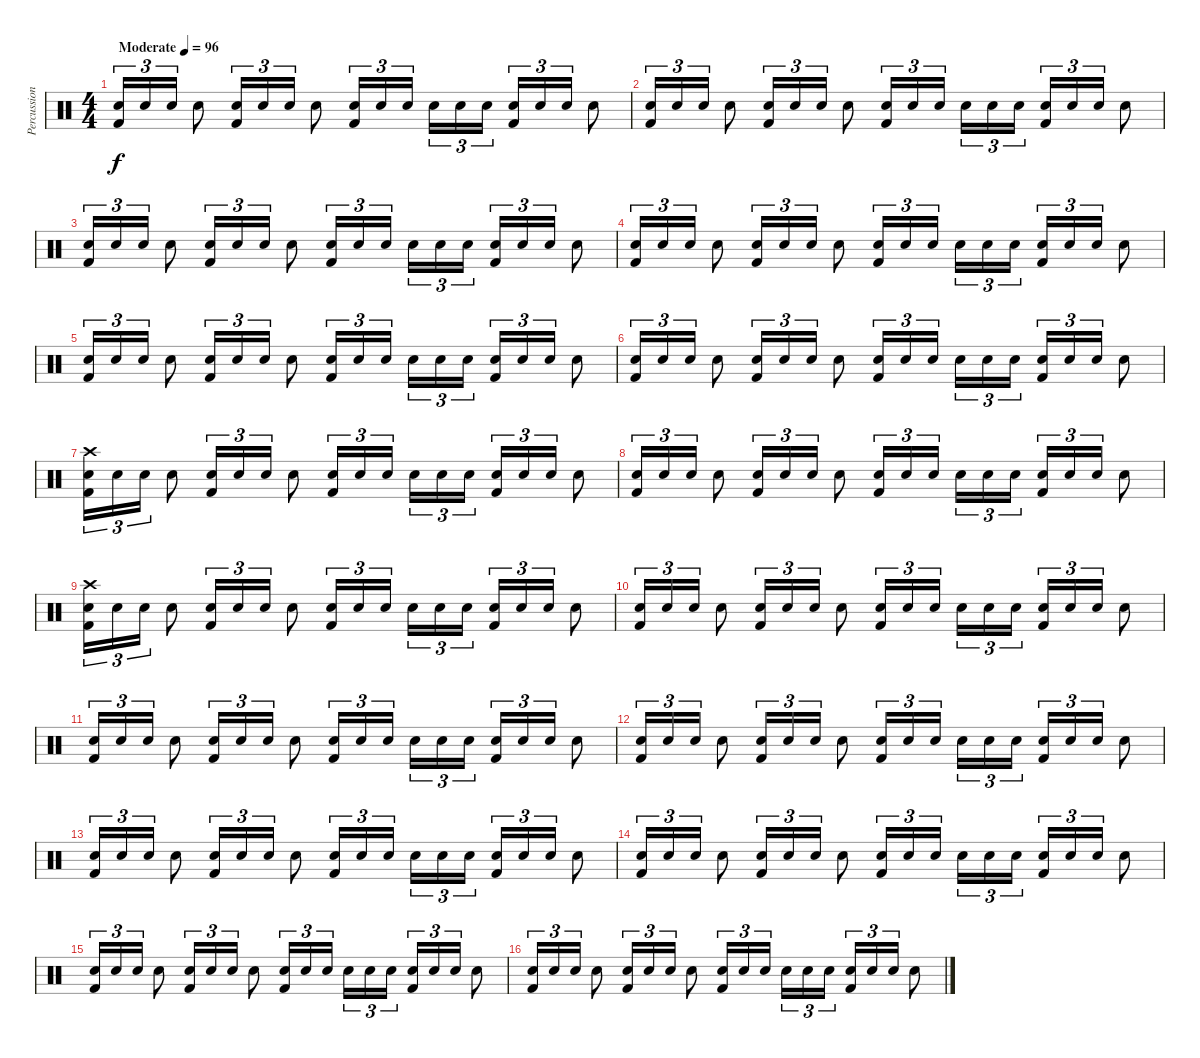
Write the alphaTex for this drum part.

\track ("Percussion" "Percussion") {instrument percussion}
\staff {score}
\articulation defaults
\ts (4 4)
\tempo (96 "Moderate")
\clef neutral
\ks c
("Snare (hit) 2" "Kick (hit) 2").16{tu (3 2) dy f volume 0} "Snare (hit) 2".16{tu (3 2) volume 13} "Snare (hit) 2".16{tu (3 2)} "Snare (hit) 2".8 ("Snare (hit) 2" "Kick (hit) 2").16{tu (3 2)} "Snare (hit) 2".16{tu (3 2)} "Snare (hit) 2".16{tu (3 2)} "Snare (hit) 2".8 ("Snare (hit) 2" "Kick (hit) 2").16{tu (3 2)} "Snare (hit) 2".16{tu (3 2)} "Snare (hit) 2".16{tu (3 2) beam splitsecondary} "Snare (hit) 2".16{tu (3 2)} "Snare (hit) 2".16{tu (3 2)} "Snare (hit) 2".16{tu (3 2)} ("Snare (hit) 2" "Kick (hit) 2").16{tu (3 2)} "Snare (hit) 2".16{tu (3 2)} "Snare (hit) 2".16{tu (3 2)} "Snare (hit) 2".8 |
("Snare (hit) 2" "Kick (hit) 2").16{tu (3 2)} "Snare (hit) 2".16{tu (3 2)} "Snare (hit) 2".16{tu (3 2)} "Snare (hit) 2".8 ("Snare (hit) 2" "Kick (hit) 2").16{tu (3 2)} "Snare (hit) 2".16{tu (3 2)} "Snare (hit) 2".16{tu (3 2)} "Snare (hit) 2".8 ("Snare (hit) 2" "Kick (hit) 2").16{tu (3 2)} "Snare (hit) 2".16{tu (3 2)} "Snare (hit) 2".16{tu (3 2) beam splitsecondary} "Snare (hit) 2".16{tu (3 2)} "Snare (hit) 2".16{tu (3 2)} "Snare (hit) 2".16{tu (3 2)} ("Snare (hit) 2" "Kick (hit) 2").16{tu (3 2)} "Snare (hit) 2".16{tu (3 2)} "Snare (hit) 2".16{tu (3 2)} "Snare (hit) 2".8 |
("Snare (hit) 2" "Kick (hit) 2").16{tu (3 2)} "Snare (hit) 2".16{tu (3 2)} "Snare (hit) 2".16{tu (3 2)} "Snare (hit) 2".8 ("Snare (hit) 2" "Kick (hit) 2").16{tu (3 2)} "Snare (hit) 2".16{tu (3 2)} "Snare (hit) 2".16{tu (3 2)} "Snare (hit) 2".8 ("Snare (hit) 2" "Kick (hit) 2").16{tu (3 2)} "Snare (hit) 2".16{tu (3 2)} "Snare (hit) 2".16{tu (3 2) beam splitsecondary} "Snare (hit) 2".16{tu (3 2)} "Snare (hit) 2".16{tu (3 2)} "Snare (hit) 2".16{tu (3 2)} ("Snare (hit) 2" "Kick (hit) 2").16{tu (3 2)} "Snare (hit) 2".16{tu (3 2)} "Snare (hit) 2".16{tu (3 2)} "Snare (hit) 2".8 |
("Snare (hit) 2" "Kick (hit) 2").16{tu (3 2)} "Snare (hit) 2".16{tu (3 2)} "Snare (hit) 2".16{tu (3 2)} "Snare (hit) 2".8 ("Snare (hit) 2" "Kick (hit) 2").16{tu (3 2)} "Snare (hit) 2".16{tu (3 2)} "Snare (hit) 2".16{tu (3 2)} "Snare (hit) 2".8 ("Snare (hit) 2" "Kick (hit) 2").16{tu (3 2)} "Snare (hit) 2".16{tu (3 2)} "Snare (hit) 2".16{tu (3 2) beam splitsecondary} "Snare (hit) 2".16{tu (3 2)} "Snare (hit) 2".16{tu (3 2)} "Snare (hit) 2".16{tu (3 2)} ("Snare (hit) 2" "Kick (hit) 2").16{tu (3 2)} "Snare (hit) 2".16{tu (3 2)} "Snare (hit) 2".16{tu (3 2)} "Snare (hit) 2".8 |
("Snare (hit) 2" "Kick (hit) 2").16{tu (3 2)} "Snare (hit) 2".16{tu (3 2)} "Snare (hit) 2".16{tu (3 2)} "Snare (hit) 2".8 ("Snare (hit) 2" "Kick (hit) 2").16{tu (3 2)} "Snare (hit) 2".16{tu (3 2)} "Snare (hit) 2".16{tu (3 2)} "Snare (hit) 2".8 ("Snare (hit) 2" "Kick (hit) 2").16{tu (3 2)} "Snare (hit) 2".16{tu (3 2)} "Snare (hit) 2".16{tu (3 2) beam splitsecondary} "Snare (hit) 2".16{tu (3 2)} "Snare (hit) 2".16{tu (3 2)} "Snare (hit) 2".16{tu (3 2)} ("Snare (hit) 2" "Kick (hit) 2").16{tu (3 2)} "Snare (hit) 2".16{tu (3 2)} "Snare (hit) 2".16{tu (3 2)} "Snare (hit) 2".8 |
("Snare (hit) 2" "Kick (hit) 2").16{tu (3 2)} "Snare (hit) 2".16{tu (3 2)} "Snare (hit) 2".16{tu (3 2)} "Snare (hit) 2".8 ("Snare (hit) 2" "Kick (hit) 2").16{tu (3 2)} "Snare (hit) 2".16{tu (3 2)} "Snare (hit) 2".16{tu (3 2)} "Snare (hit) 2".8 ("Snare (hit) 2" "Kick (hit) 2").16{tu (3 2)} "Snare (hit) 2".16{tu (3 2)} "Snare (hit) 2".16{tu (3 2) beam splitsecondary} "Snare (hit) 2".16{tu (3 2)} "Snare (hit) 2".16{tu (3 2)} "Snare (hit) 2".16{tu (3 2)} ("Snare (hit) 2" "Kick (hit) 2").16{tu (3 2)} "Snare (hit) 2".16{tu (3 2)} "Snare (hit) 2".16{tu (3 2)} "Snare (hit) 2".8 |
("Crash high (hit)" "Snare (hit) 2" "Kick (hit) 2").16{tu (3 2)} "Snare (hit) 2".16{tu (3 2)} "Snare (hit) 2".16{tu (3 2)} "Snare (hit) 2".8 ("Snare (hit) 2" "Kick (hit) 2").16{tu (3 2)} "Snare (hit) 2".16{tu (3 2)} "Snare (hit) 2".16{tu (3 2)} "Snare (hit) 2".8 ("Snare (hit) 2" "Kick (hit) 2").16{tu (3 2)} "Snare (hit) 2".16{tu (3 2)} "Snare (hit) 2".16{tu (3 2) beam splitsecondary} "Snare (hit) 2".16{tu (3 2)} "Snare (hit) 2".16{tu (3 2)} "Snare (hit) 2".16{tu (3 2)} ("Snare (hit) 2" "Kick (hit) 2").16{tu (3 2)} "Snare (hit) 2".16{tu (3 2)} "Snare (hit) 2".16{tu (3 2)} "Snare (hit) 2".8 |
("Snare (hit) 2" "Kick (hit) 2").16{tu (3 2)} "Snare (hit) 2".16{tu (3 2)} "Snare (hit) 2".16{tu (3 2)} "Snare (hit) 2".8 ("Snare (hit) 2" "Kick (hit) 2").16{tu (3 2)} "Snare (hit) 2".16{tu (3 2)} "Snare (hit) 2".16{tu (3 2)} "Snare (hit) 2".8 ("Snare (hit) 2" "Kick (hit) 2").16{tu (3 2)} "Snare (hit) 2".16{tu (3 2)} "Snare (hit) 2".16{tu (3 2) beam splitsecondary} "Snare (hit) 2".16{tu (3 2)} "Snare (hit) 2".16{tu (3 2)} "Snare (hit) 2".16{tu (3 2)} ("Snare (hit) 2" "Kick (hit) 2").16{tu (3 2)} "Snare (hit) 2".16{tu (3 2)} "Snare (hit) 2".16{tu (3 2)} "Snare (hit) 2".8 |
("Crash high (hit)" "Snare (hit) 2" "Kick (hit) 2").16{tu (3 2)} "Snare (hit) 2".16{tu (3 2)} "Snare (hit) 2".16{tu (3 2)} "Snare (hit) 2".8 ("Snare (hit) 2" "Kick (hit) 2").16{tu (3 2)} "Snare (hit) 2".16{tu (3 2)} "Snare (hit) 2".16{tu (3 2)} "Snare (hit) 2".8 ("Snare (hit) 2" "Kick (hit) 2").16{tu (3 2)} "Snare (hit) 2".16{tu (3 2)} "Snare (hit) 2".16{tu (3 2) beam splitsecondary} "Snare (hit) 2".16{tu (3 2)} "Snare (hit) 2".16{tu (3 2)} "Snare (hit) 2".16{tu (3 2)} ("Snare (hit) 2" "Kick (hit) 2").16{tu (3 2)} "Snare (hit) 2".16{tu (3 2)} "Snare (hit) 2".16{tu (3 2)} "Snare (hit) 2".8 |
("Snare (hit) 2" "Kick (hit) 2").16{tu (3 2)} "Snare (hit) 2".16{tu (3 2)} "Snare (hit) 2".16{tu (3 2)} "Snare (hit) 2".8 ("Snare (hit) 2" "Kick (hit) 2").16{tu (3 2)} "Snare (hit) 2".16{tu (3 2)} "Snare (hit) 2".16{tu (3 2)} "Snare (hit) 2".8 ("Snare (hit) 2" "Kick (hit) 2").16{tu (3 2)} "Snare (hit) 2".16{tu (3 2)} "Snare (hit) 2".16{tu (3 2) beam splitsecondary} "Snare (hit) 2".16{tu (3 2)} "Snare (hit) 2".16{tu (3 2)} "Snare (hit) 2".16{tu (3 2)} ("Snare (hit) 2" "Kick (hit) 2").16{tu (3 2)} "Snare (hit) 2".16{tu (3 2)} "Snare (hit) 2".16{tu (3 2)} "Snare (hit) 2".8 |
("Snare (hit) 2" "Kick (hit) 2").16{tu (3 2)} "Snare (hit) 2".16{tu (3 2)} "Snare (hit) 2".16{tu (3 2)} "Snare (hit) 2".8 ("Snare (hit) 2" "Kick (hit) 2").16{tu (3 2)} "Snare (hit) 2".16{tu (3 2)} "Snare (hit) 2".16{tu (3 2)} "Snare (hit) 2".8 ("Snare (hit) 2" "Kick (hit) 2").16{tu (3 2)} "Snare (hit) 2".16{tu (3 2)} "Snare (hit) 2".16{tu (3 2) beam splitsecondary} "Snare (hit) 2".16{tu (3 2)} "Snare (hit) 2".16{tu (3 2)} "Snare (hit) 2".16{tu (3 2)} ("Snare (hit) 2" "Kick (hit) 2").16{tu (3 2)} "Snare (hit) 2".16{tu (3 2)} "Snare (hit) 2".16{tu (3 2)} "Snare (hit) 2".8 |
("Snare (hit) 2" "Kick (hit) 2").16{tu (3 2)} "Snare (hit) 2".16{tu (3 2)} "Snare (hit) 2".16{tu (3 2)} "Snare (hit) 2".8 ("Snare (hit) 2" "Kick (hit) 2").16{tu (3 2)} "Snare (hit) 2".16{tu (3 2)} "Snare (hit) 2".16{tu (3 2)} "Snare (hit) 2".8 ("Snare (hit) 2" "Kick (hit) 2").16{tu (3 2)} "Snare (hit) 2".16{tu (3 2)} "Snare (hit) 2".16{tu (3 2) beam splitsecondary} "Snare (hit) 2".16{tu (3 2)} "Snare (hit) 2".16{tu (3 2)} "Snare (hit) 2".16{tu (3 2)} ("Snare (hit) 2" "Kick (hit) 2").16{tu (3 2)} "Snare (hit) 2".16{tu (3 2)} "Snare (hit) 2".16{tu (3 2)} "Snare (hit) 2".8 |
("Snare (hit) 2" "Kick (hit) 2").16{tu (3 2)} "Snare (hit) 2".16{tu (3 2)} "Snare (hit) 2".16{tu (3 2)} "Snare (hit) 2".8 ("Snare (hit) 2" "Kick (hit) 2").16{tu (3 2)} "Snare (hit) 2".16{tu (3 2)} "Snare (hit) 2".16{tu (3 2)} "Snare (hit) 2".8 ("Snare (hit) 2" "Kick (hit) 2").16{tu (3 2)} "Snare (hit) 2".16{tu (3 2)} "Snare (hit) 2".16{tu (3 2) beam splitsecondary} "Snare (hit) 2".16{tu (3 2)} "Snare (hit) 2".16{tu (3 2)} "Snare (hit) 2".16{tu (3 2)} ("Snare (hit) 2" "Kick (hit) 2").16{tu (3 2)} "Snare (hit) 2".16{tu (3 2)} "Snare (hit) 2".16{tu (3 2)} "Snare (hit) 2".8 |
("Snare (hit) 2" "Kick (hit) 2").16{tu (3 2)} "Snare (hit) 2".16{tu (3 2)} "Snare (hit) 2".16{tu (3 2)} "Snare (hit) 2".8 ("Snare (hit) 2" "Kick (hit) 2").16{tu (3 2)} "Snare (hit) 2".16{tu (3 2)} "Snare (hit) 2".16{tu (3 2)} "Snare (hit) 2".8 ("Snare (hit) 2" "Kick (hit) 2").16{tu (3 2)} "Snare (hit) 2".16{tu (3 2)} "Snare (hit) 2".16{tu (3 2) beam splitsecondary} "Snare (hit) 2".16{tu (3 2)} "Snare (hit) 2".16{tu (3 2)} "Snare (hit) 2".16{tu (3 2)} ("Snare (hit) 2" "Kick (hit) 2").16{tu (3 2)} "Snare (hit) 2".16{tu (3 2)} "Snare (hit) 2".16{tu (3 2)} "Snare (hit) 2".8 |
("Snare (hit) 2" "Kick (hit) 2").16{tu (3 2)} "Snare (hit) 2".16{tu (3 2)} "Snare (hit) 2".16{tu (3 2)} "Snare (hit) 2".8 ("Snare (hit) 2" "Kick (hit) 2").16{tu (3 2)} "Snare (hit) 2".16{tu (3 2)} "Snare (hit) 2".16{tu (3 2)} "Snare (hit) 2".8 ("Snare (hit) 2" "Kick (hit) 2").16{tu (3 2)} "Snare (hit) 2".16{tu (3 2)} "Snare (hit) 2".16{tu (3 2) beam splitsecondary} "Snare (hit) 2".16{tu (3 2)} "Snare (hit) 2".16{tu (3 2)} "Snare (hit) 2".16{tu (3 2)} ("Snare (hit) 2" "Kick (hit) 2").16{tu (3 2)} "Snare (hit) 2".16{tu (3 2)} "Snare (hit) 2".16{tu (3 2)} "Snare (hit) 2".8 |
("Snare (hit) 2" "Kick (hit) 2").16{tu (3 2)} "Snare (hit) 2".16{tu (3 2)} "Snare (hit) 2".16{tu (3 2)} "Snare (hit) 2".8 ("Snare (hit) 2" "Kick (hit) 2").16{tu (3 2)} "Snare (hit) 2".16{tu (3 2)} "Snare (hit) 2".16{tu (3 2)} "Snare (hit) 2".8 ("Snare (hit) 2" "Kick (hit) 2").16{tu (3 2)} "Snare (hit) 2".16{tu (3 2)} "Snare (hit) 2".16{tu (3 2) beam splitsecondary} "Snare (hit) 2".16{tu (3 2)} "Snare (hit) 2".16{tu (3 2)} "Snare (hit) 2".16{tu (3 2)} ("Snare (hit) 2" "Kick (hit) 2").16{tu (3 2)} "Snare (hit) 2".16{tu (3 2)} "Snare (hit) 2".16{tu (3 2)} "Snare (hit) 2".8
